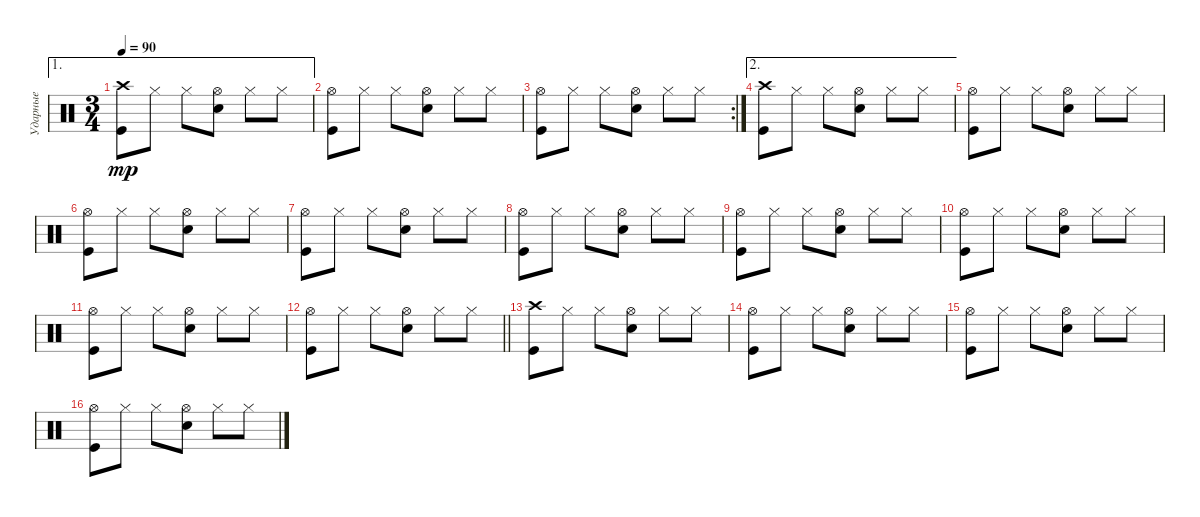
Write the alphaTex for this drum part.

\track ("Ударные" "Ударные") {instrument percussion}
\staff {score}
\articulation defaults
\ae 1
\ts (3 4)
\tempo 90
\clef neutral
\ks c
("Kick (hit)" "Crash high (hit)").8{dy mp} "Hi-Hat (closed)".8 "Hi-Hat (closed)".8 ("Snare (hit) 2" "Hi-Hat (open)").8 "Hi-Hat (closed)".8 "Hi-Hat (closed)".8 |
("Kick (hit)" "Hi-Hat (open)").8 "Hi-Hat (closed)".8 "Hi-Hat (closed)".8 ("Snare (hit) 2" "Hi-Hat (open)").8 "Hi-Hat (closed)".8 "Hi-Hat (closed)".8 |
\rc 2
("Kick (hit)" "Hi-Hat (open)").8 "Hi-Hat (closed)".8 "Hi-Hat (closed)".8 ("Snare (hit) 2" "Hi-Hat (open)").8 "Hi-Hat (closed)".8 "Hi-Hat (closed)".8 |
\ae 2
("Kick (hit)" "Crash high (hit)").8 "Hi-Hat (closed)".8 "Hi-Hat (closed)".8 ("Snare (hit) 2" "Hi-Hat (open)").8 "Hi-Hat (closed)".8 "Hi-Hat (closed)".8 |
("Kick (hit)" "Hi-Hat (open)").8 "Hi-Hat (closed)".8 "Hi-Hat (closed)".8 ("Snare (hit) 2" "Hi-Hat (open)").8 "Hi-Hat (closed)".8 "Hi-Hat (closed)".8 |
("Kick (hit)" "Hi-Hat (open)").8 "Hi-Hat (closed)".8 "Hi-Hat (closed)".8 ("Snare (hit) 2" "Hi-Hat (open)").8 "Hi-Hat (closed)".8 "Hi-Hat (closed)".8 |
("Kick (hit)" "Hi-Hat (open)").8 "Hi-Hat (closed)".8 "Hi-Hat (closed)".8 ("Snare (hit) 2" "Hi-Hat (open)").8 "Hi-Hat (closed)".8 "Hi-Hat (closed)".8 |
("Kick (hit)" "Hi-Hat (open)").8 "Hi-Hat (closed)".8 "Hi-Hat (closed)".8 ("Snare (hit) 2" "Hi-Hat (open)").8 "Hi-Hat (closed)".8 "Hi-Hat (closed)".8 |
("Kick (hit)" "Hi-Hat (open)").8 "Hi-Hat (closed)".8 "Hi-Hat (closed)".8 ("Snare (hit) 2" "Hi-Hat (open)").8 "Hi-Hat (closed)".8 "Hi-Hat (closed)".8 |
("Kick (hit)" "Hi-Hat (open)").8 "Hi-Hat (closed)".8 "Hi-Hat (closed)".8 ("Snare (hit) 2" "Hi-Hat (open)").8 "Hi-Hat (closed)".8 "Hi-Hat (closed)".8 |
("Kick (hit)" "Hi-Hat (open)").8 "Hi-Hat (closed)".8 "Hi-Hat (closed)".8 ("Snare (hit) 2" "Hi-Hat (open)").8 "Hi-Hat (closed)".8 "Hi-Hat (closed)".8 |
\barLineRight lightlight
("Kick (hit)" "Hi-Hat (open)").8 "Hi-Hat (closed)".8 "Hi-Hat (closed)".8 ("Snare (hit) 2" "Hi-Hat (open)").8 "Hi-Hat (closed)".8 "Hi-Hat (closed)".8 |
("Kick (hit)" "Crash high (hit)").8 "Hi-Hat (closed)".8 "Hi-Hat (closed)".8 ("Snare (hit) 2" "Hi-Hat (open)").8 "Hi-Hat (closed)".8 "Hi-Hat (closed)".8 |
("Kick (hit)" "Hi-Hat (open)").8 "Hi-Hat (closed)".8 "Hi-Hat (closed)".8 ("Snare (hit) 2" "Hi-Hat (open)").8 "Hi-Hat (closed)".8 "Hi-Hat (closed)".8 |
("Kick (hit)" "Hi-Hat (open)").8 "Hi-Hat (closed)".8 "Hi-Hat (closed)".8 ("Snare (hit) 2" "Hi-Hat (open)").8 "Hi-Hat (closed)".8 "Hi-Hat (closed)".8 |
("Kick (hit)" "Hi-Hat (open)").8 "Hi-Hat (closed)".8 "Hi-Hat (closed)".8 ("Snare (hit) 2" "Hi-Hat (open)").8 "Hi-Hat (closed)".8 "Hi-Hat (closed)".8
